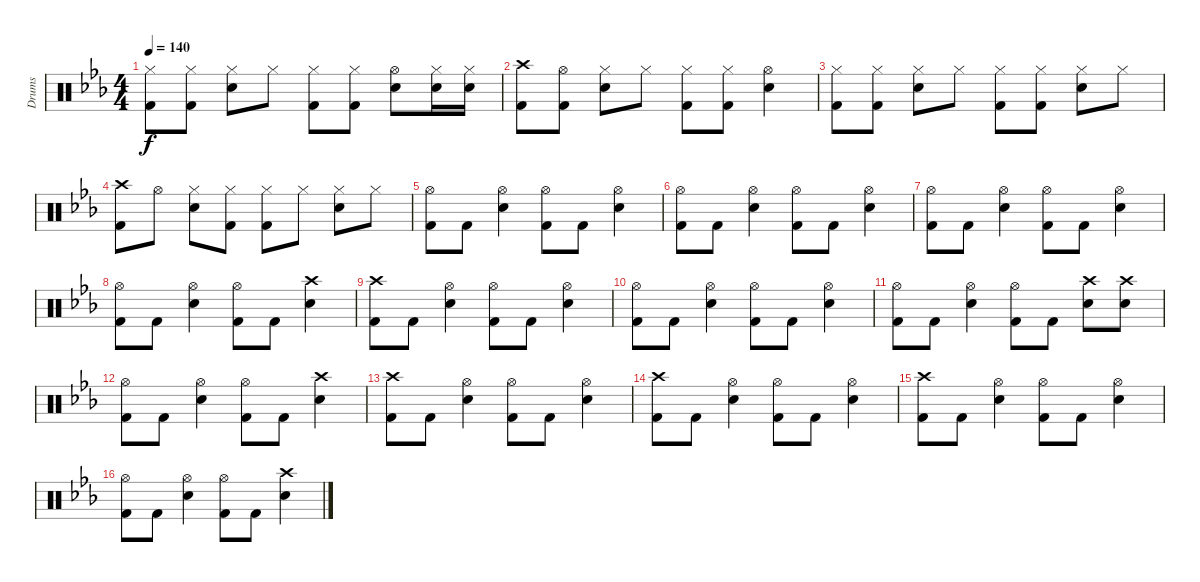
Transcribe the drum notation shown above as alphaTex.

\track ("Drums" "Drums") {instrument percussion}
\staff {score}
\articulation defaults
\ts (4 4)
\tempo 140
\clef neutral
\ks eb
("Hi-Hat (closed)" "Kick (hit) 2").8{dy f} ("Hi-Hat (closed)" "Kick (hit) 2").8 ("Hi-Hat (closed)" "Electric Snare (hit)").8 "Hi-Hat (closed)".8 ("Hi-Hat (closed)" "Kick (hit) 2").8 ("Hi-Hat (closed)" "Kick (hit) 2").8 ("Hi-Hat (open)" "Electric Snare (hit)").8 ("Hi-Hat (closed)" "Electric Snare (hit)").16 ("Hi-Hat (closed)" "Electric Snare (hit)").16 |
("Crash high (hit)" "Kick (hit) 2").8 ("Hi-Hat (open)" "Kick (hit) 2").8 ("Hi-Hat (closed)" "Electric Snare (hit)").8 "Hi-Hat (closed)".8 ("Hi-Hat (closed)" "Kick (hit) 2").8 ("Hi-Hat (closed)" "Kick (hit) 2").8 ("Hi-Hat (open)" "Electric Snare (hit)").4 |
("Hi-Hat (closed)" "Kick (hit) 2").8 ("Hi-Hat (closed)" "Kick (hit) 2").8 ("Hi-Hat (closed)" "Electric Snare (hit)").8 "Hi-Hat (closed)".8 ("Hi-Hat (closed)" "Kick (hit) 2").8 ("Hi-Hat (closed)" "Kick (hit) 2").8 ("Hi-Hat (closed)" "Electric Snare (hit)").8 "Hi-Hat (closed)".8 |
("Crash high (hit)" "Kick (hit) 2").8 "Hi-Hat (open)".8 ("Hi-Hat (closed)" "Electric Snare (hit)").8 ("Hi-Hat (closed)" "Kick (hit) 2").8 ("Hi-Hat (closed)" "Kick (hit) 2").8 "Hi-Hat (closed)".8 ("Hi-Hat (closed)" "Electric Snare (hit)").8 "Hi-Hat (closed)".8 |
("Hi-Hat (open)" "Kick (hit) 2").8 "Kick (hit) 2".8 ("Hi-Hat (open)" "Electric Snare (hit)").4 ("Hi-Hat (open)" "Kick (hit) 2").8 "Kick (hit) 2".8 ("Hi-Hat (open)" "Electric Snare (hit)").4 |
("Hi-Hat (open)" "Kick (hit) 2").8 "Kick (hit) 2".8 ("Hi-Hat (open)" "Electric Snare (hit)").4 ("Hi-Hat (open)" "Kick (hit) 2").8 "Kick (hit) 2".8 ("Hi-Hat (open)" "Electric Snare (hit)").4 |
("Hi-Hat (open)" "Kick (hit) 2").8 "Kick (hit) 2".8 ("Hi-Hat (open)" "Electric Snare (hit)").4 ("Hi-Hat (open)" "Kick (hit) 2").8 "Kick (hit) 2".8 ("Hi-Hat (open)" "Electric Snare (hit)").4 |
("Hi-Hat (open)" "Kick (hit) 2").8 "Kick (hit) 2".8 ("Hi-Hat (open)" "Electric Snare (hit)").4 ("Hi-Hat (open)" "Kick (hit) 2").8 "Kick (hit) 2".8 ("Crash high (hit)" "Electric Snare (hit)").4 |
("Crash high (hit)" "Kick (hit) 2").8 "Kick (hit) 2".8 ("Hi-Hat (open)" "Electric Snare (hit)").4 ("Hi-Hat (open)" "Kick (hit) 2").8 "Kick (hit) 2".8 ("Hi-Hat (open)" "Electric Snare (hit)").4 |
("Hi-Hat (open)" "Kick (hit) 2").8 "Kick (hit) 2".8 ("Hi-Hat (open)" "Electric Snare (hit)").4 ("Hi-Hat (open)" "Kick (hit) 2").8 "Kick (hit) 2".8 ("Hi-Hat (open)" "Electric Snare (hit)").4 |
("Hi-Hat (open)" "Kick (hit) 2").8 "Kick (hit) 2".8 ("Hi-Hat (open)" "Electric Snare (hit)").4 ("Hi-Hat (open)" "Kick (hit) 2").8 "Kick (hit) 2".8 ("Crash high (hit)" "Electric Snare (hit)").8 ("Crash high (hit)" "Electric Snare (hit)").8 |
("Hi-Hat (open)" "Kick (hit) 2").8 "Kick (hit) 2".8 ("Hi-Hat (open)" "Electric Snare (hit)").4 ("Hi-Hat (open)" "Kick (hit) 2").8 "Kick (hit) 2".8 ("Crash high (hit)" "Electric Snare (hit)").4 |
("Crash high (hit)" "Kick (hit) 2").8 "Kick (hit) 2".8 ("Hi-Hat (open)" "Electric Snare (hit)").4 ("Hi-Hat (open)" "Kick (hit) 2").8 "Kick (hit) 2".8 ("Hi-Hat (open)" "Electric Snare (hit)").4 |
("Crash high (hit)" "Kick (hit) 2").8 "Kick (hit) 2".8 ("Hi-Hat (open)" "Electric Snare (hit)").4 ("Hi-Hat (open)" "Kick (hit) 2").8 "Kick (hit) 2".8 ("Hi-Hat (open)" "Electric Snare (hit)").4 |
("Crash high (hit)" "Kick (hit) 2").8 "Kick (hit) 2".8 ("Hi-Hat (open)" "Electric Snare (hit)").4 ("Hi-Hat (open)" "Kick (hit) 2").8 "Kick (hit) 2".8 ("Hi-Hat (open)" "Electric Snare (hit)").4 |
("Hi-Hat (open)" "Kick (hit) 2").8 "Kick (hit) 2".8 ("Hi-Hat (open)" "Electric Snare (hit)").4 ("Hi-Hat (open)" "Kick (hit) 2").8 "Kick (hit) 2".8 ("Crash high (hit)" "Electric Snare (hit)").4
